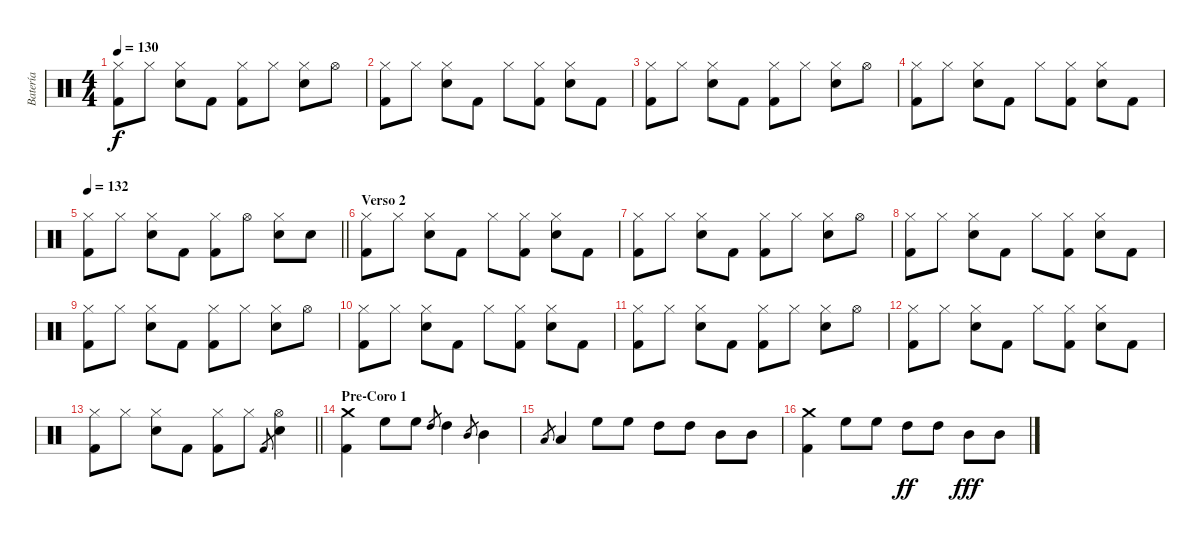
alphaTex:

\track ("Batería" "Batería") {instrument percussion}
\staff {score}
\articulation defaults
\ts (4 4)
\tempo 130
\clef neutral
\ks aminor
("Hi-Hat (closed)" "Kick (hit) 2").8{dy f} "Hi-Hat (closed)".8 ("Hi-Hat (closed)" "Electric Snare (hit)").8 "Kick (hit) 2".8 ("Hi-Hat (closed)" "Kick (hit) 2").8 "Hi-Hat (closed)".8 ("Hi-Hat (closed)" "Electric Snare (hit)").8 "Hi-Hat (open)".8 |
("Hi-Hat (closed)" "Kick (hit) 2").8 "Hi-Hat (closed)".8 ("Hi-Hat (closed)" "Electric Snare (hit)").8 "Kick (hit) 2".8 "Hi-Hat (closed)".8 ("Hi-Hat (closed)" "Kick (hit) 2").8 ("Hi-Hat (closed)" "Electric Snare (hit)").8 "Kick (hit) 2".8 |
("Hi-Hat (closed)" "Kick (hit) 2").8 "Hi-Hat (closed)".8 ("Hi-Hat (closed)" "Electric Snare (hit)").8 "Kick (hit) 2".8 ("Hi-Hat (closed)" "Kick (hit) 2").8 "Hi-Hat (closed)".8 ("Hi-Hat (closed)" "Electric Snare (hit)").8 "Hi-Hat (open)".8 |
("Hi-Hat (closed)" "Kick (hit) 2").8 "Hi-Hat (closed)".8 ("Hi-Hat (closed)" "Electric Snare (hit)").8 "Kick (hit) 2".8 "Hi-Hat (closed)".8 ("Hi-Hat (closed)" "Kick (hit) 2").8 ("Hi-Hat (closed)" "Electric Snare (hit)").8 "Kick (hit) 2".8 |
\tempo 132
\barLineRight lightlight
("Hi-Hat (closed)" "Kick (hit) 2").8 "Hi-Hat (closed)".8 ("Hi-Hat (closed)" "Electric Snare (hit)").8 "Kick (hit) 2".8 ("Hi-Hat (closed)" "Kick (hit) 2").8 "Hi-Hat (open)".8 ("Hi-Hat (closed)" "Electric Snare (hit)").8 "Electric Snare (hit)".8 |
\section ("" "Verso 2")
("Hi-Hat (closed)" "Kick (hit) 2").8 "Hi-Hat (closed)".8 ("Hi-Hat (closed)" "Electric Snare (hit)").8 "Kick (hit) 2".8 "Hi-Hat (closed)".8 ("Hi-Hat (closed)" "Kick (hit) 2").8 ("Hi-Hat (closed)" "Electric Snare (hit)").8 "Kick (hit) 2".8 |
("Hi-Hat (closed)" "Kick (hit) 2").8 "Hi-Hat (closed)".8 ("Hi-Hat (closed)" "Electric Snare (hit)").8 "Kick (hit) 2".8 ("Hi-Hat (closed)" "Kick (hit) 2").8 "Hi-Hat (closed)".8 ("Hi-Hat (closed)" "Electric Snare (hit)").8 "Hi-Hat (open)".8 |
("Hi-Hat (closed)" "Kick (hit) 2").8 "Hi-Hat (closed)".8 ("Hi-Hat (closed)" "Electric Snare (hit)").8 "Kick (hit) 2".8 "Hi-Hat (closed)".8 ("Hi-Hat (closed)" "Kick (hit) 2").8 ("Hi-Hat (closed)" "Electric Snare (hit)").8 "Kick (hit) 2".8 |
("Hi-Hat (closed)" "Kick (hit) 2").8 "Hi-Hat (closed)".8 ("Hi-Hat (closed)" "Electric Snare (hit)").8 "Kick (hit) 2".8 ("Hi-Hat (closed)" "Kick (hit) 2").8 "Hi-Hat (closed)".8 ("Hi-Hat (closed)" "Electric Snare (hit)").8 "Hi-Hat (open)".8 |
("Hi-Hat (closed)" "Kick (hit) 2").8 "Hi-Hat (closed)".8 ("Hi-Hat (closed)" "Electric Snare (hit)").8 "Kick (hit) 2".8 "Hi-Hat (closed)".8 ("Hi-Hat (closed)" "Kick (hit) 2").8 ("Hi-Hat (closed)" "Electric Snare (hit)").8 "Kick (hit) 2".8 |
("Hi-Hat (closed)" "Kick (hit) 2").8 "Hi-Hat (closed)".8 ("Hi-Hat (closed)" "Electric Snare (hit)").8 "Kick (hit) 2".8 ("Hi-Hat (closed)" "Kick (hit) 2").8 "Hi-Hat (closed)".8 ("Hi-Hat (closed)" "Electric Snare (hit)").8 "Hi-Hat (open)".8 |
("Hi-Hat (closed)" "Kick (hit) 2").8 "Hi-Hat (closed)".8 ("Hi-Hat (closed)" "Electric Snare (hit)").8 "Kick (hit) 2".8 "Hi-Hat (closed)".8 ("Hi-Hat (closed)" "Kick (hit) 2").8 ("Hi-Hat (closed)" "Electric Snare (hit)").8 "Kick (hit) 2".8 |
\barLineRight lightlight
("Hi-Hat (closed)" "Kick (hit) 2").8 "Hi-Hat (closed)".8 ("Hi-Hat (closed)" "Electric Snare (hit)").8 "Kick (hit) 2".8 ("Hi-Hat (closed)" "Kick (hit) 2").8 "Hi-Hat (closed)".8 "Kick (hit) 2".8{gr} ("Hi-Hat (open)" "Electric Snare (hit)").4 |
\section ("" "Pre-Coro 1")
("Crash medium (hit)" "Kick (hit) 2").4 "High Floor Tom (hit)".8 "High Floor Tom (hit)".8 "High Tom (hit)".8{gr} "High Tom (hit)".4 "Mid Tom (hit)".8{gr} "Mid Tom (hit)".4 |
"Low Tom (hit)".8{gr} "Low Tom (hit)".4 "High Floor Tom (hit)".8 "High Floor Tom (hit)".8 "High Tom (hit)".8 "High Tom (hit)".8 "Mid Tom (hit)".8 "Mid Tom (hit)".8 |
("Crash medium (hit)" "Kick (hit) 2").4 "High Floor Tom (hit)".8 "High Floor Tom (hit)".8 "High Tom (hit)".8{dy ff} "High Tom (hit)".8 "Mid Tom (hit)".8{dy fff} "Mid Tom (hit)".8
